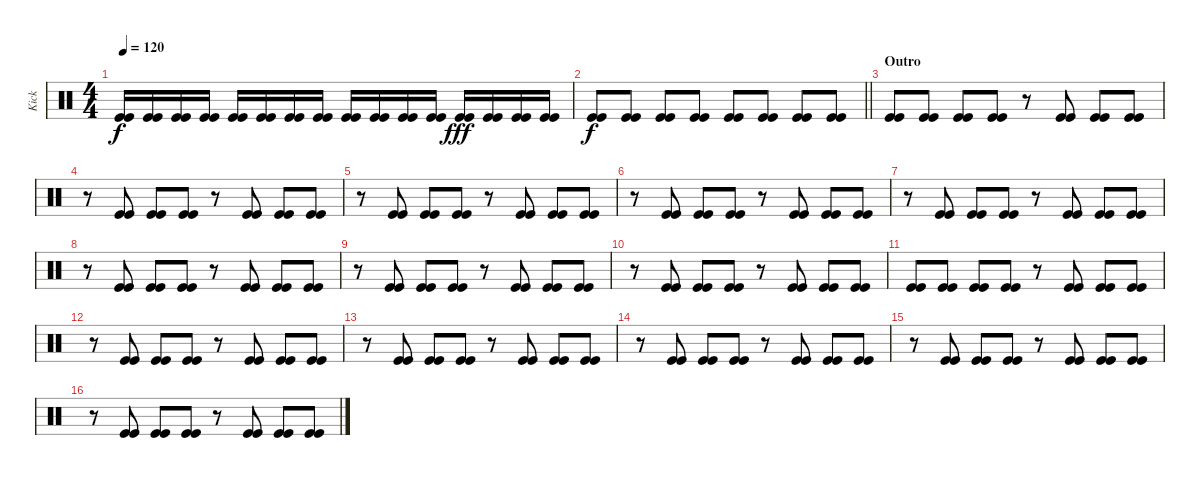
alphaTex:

\track ("Kick" "Kick") {instrument percussion}
\staff {score}
\articulation defaults
\ts (4 4)
\tempo 120
\clef neutral
\ks c
("Kick (hit)" "Kick (hit)").16{dy f} ("Kick (hit)" "Kick (hit)").16 ("Kick (hit)" "Kick (hit)").16 ("Kick (hit)" "Kick (hit)").16 ("Kick (hit)" "Kick (hit)").16 ("Kick (hit)" "Kick (hit)").16 ("Kick (hit)" "Kick (hit)").16 ("Kick (hit)" "Kick (hit)").16 ("Kick (hit)" "Kick (hit)").16 ("Kick (hit)" "Kick (hit)").16 ("Kick (hit)" "Kick (hit)").16 ("Kick (hit)" "Kick (hit)").16 ("Kick (hit)" "Kick (hit)").16{dy fff} ("Kick (hit)" "Kick (hit)").16 ("Kick (hit)" "Kick (hit)").16 ("Kick (hit)" "Kick (hit)").16 |
\barLineRight lightlight
("Kick (hit)" "Kick (hit)").8{dy f} ("Kick (hit)" "Kick (hit)").8 ("Kick (hit)" "Kick (hit)").8 ("Kick (hit)" "Kick (hit)").8 ("Kick (hit)" "Kick (hit)").8 ("Kick (hit)" "Kick (hit)").8 ("Kick (hit)" "Kick (hit)").8 ("Kick (hit)" "Kick (hit)").8 |
\section ("" "Outro")
("Kick (hit)" "Kick (hit)").8 ("Kick (hit)" "Kick (hit)").8 ("Kick (hit)" "Kick (hit)").8 ("Kick (hit)" "Kick (hit)").8 r.8 ("Kick (hit)" "Kick (hit)").8 ("Kick (hit)" "Kick (hit)").8 ("Kick (hit)" "Kick (hit)").8 |
r.8 ("Kick (hit)" "Kick (hit)").8 ("Kick (hit)" "Kick (hit)").8 ("Kick (hit)" "Kick (hit)").8 r.8 ("Kick (hit)" "Kick (hit)").8 ("Kick (hit)" "Kick (hit)").8 ("Kick (hit)" "Kick (hit)").8 |
r.8 ("Kick (hit)" "Kick (hit)").8 ("Kick (hit)" "Kick (hit)").8 ("Kick (hit)" "Kick (hit)").8 r.8 ("Kick (hit)" "Kick (hit)").8 ("Kick (hit)" "Kick (hit)").8 ("Kick (hit)" "Kick (hit)").8 |
r.8 ("Kick (hit)" "Kick (hit)").8 ("Kick (hit)" "Kick (hit)").8 ("Kick (hit)" "Kick (hit)").8 r.8 ("Kick (hit)" "Kick (hit)").8 ("Kick (hit)" "Kick (hit)").8 ("Kick (hit)" "Kick (hit)").8 |
r.8 ("Kick (hit)" "Kick (hit)").8 ("Kick (hit)" "Kick (hit)").8 ("Kick (hit)" "Kick (hit)").8 r.8 ("Kick (hit)" "Kick (hit)").8 ("Kick (hit)" "Kick (hit)").8 ("Kick (hit)" "Kick (hit)").8 |
r.8 ("Kick (hit)" "Kick (hit)").8 ("Kick (hit)" "Kick (hit)").8 ("Kick (hit)" "Kick (hit)").8 r.8 ("Kick (hit)" "Kick (hit)").8 ("Kick (hit)" "Kick (hit)").8 ("Kick (hit)" "Kick (hit)").8 |
r.8 ("Kick (hit)" "Kick (hit)").8 ("Kick (hit)" "Kick (hit)").8 ("Kick (hit)" "Kick (hit)").8 r.8 ("Kick (hit)" "Kick (hit)").8 ("Kick (hit)" "Kick (hit)").8 ("Kick (hit)" "Kick (hit)").8 |
r.8 ("Kick (hit)" "Kick (hit)").8 ("Kick (hit)" "Kick (hit)").8 ("Kick (hit)" "Kick (hit)").8 r.8 ("Kick (hit)" "Kick (hit)").8 ("Kick (hit)" "Kick (hit)").8 ("Kick (hit)" "Kick (hit)").8 |
("Kick (hit)" "Kick (hit)").8 ("Kick (hit)" "Kick (hit)").8 ("Kick (hit)" "Kick (hit)").8 ("Kick (hit)" "Kick (hit)").8 r.8 ("Kick (hit)" "Kick (hit)").8 ("Kick (hit)" "Kick (hit)").8 ("Kick (hit)" "Kick (hit)").8 |
r.8 ("Kick (hit)" "Kick (hit)").8 ("Kick (hit)" "Kick (hit)").8 ("Kick (hit)" "Kick (hit)").8 r.8 ("Kick (hit)" "Kick (hit)").8 ("Kick (hit)" "Kick (hit)").8 ("Kick (hit)" "Kick (hit)").8 |
r.8 ("Kick (hit)" "Kick (hit)").8 ("Kick (hit)" "Kick (hit)").8 ("Kick (hit)" "Kick (hit)").8 r.8 ("Kick (hit)" "Kick (hit)").8 ("Kick (hit)" "Kick (hit)").8 ("Kick (hit)" "Kick (hit)").8 |
r.8 ("Kick (hit)" "Kick (hit)").8 ("Kick (hit)" "Kick (hit)").8 ("Kick (hit)" "Kick (hit)").8 r.8 ("Kick (hit)" "Kick (hit)").8 ("Kick (hit)" "Kick (hit)").8 ("Kick (hit)" "Kick (hit)").8 |
r.8 ("Kick (hit)" "Kick (hit)").8 ("Kick (hit)" "Kick (hit)").8 ("Kick (hit)" "Kick (hit)").8 r.8 ("Kick (hit)" "Kick (hit)").8 ("Kick (hit)" "Kick (hit)").8 ("Kick (hit)" "Kick (hit)").8 |
r.8 ("Kick (hit)" "Kick (hit)").8 ("Kick (hit)" "Kick (hit)").8 ("Kick (hit)" "Kick (hit)").8 r.8 ("Kick (hit)" "Kick (hit)").8 ("Kick (hit)" "Kick (hit)").8 ("Kick (hit)" "Kick (hit)").8
